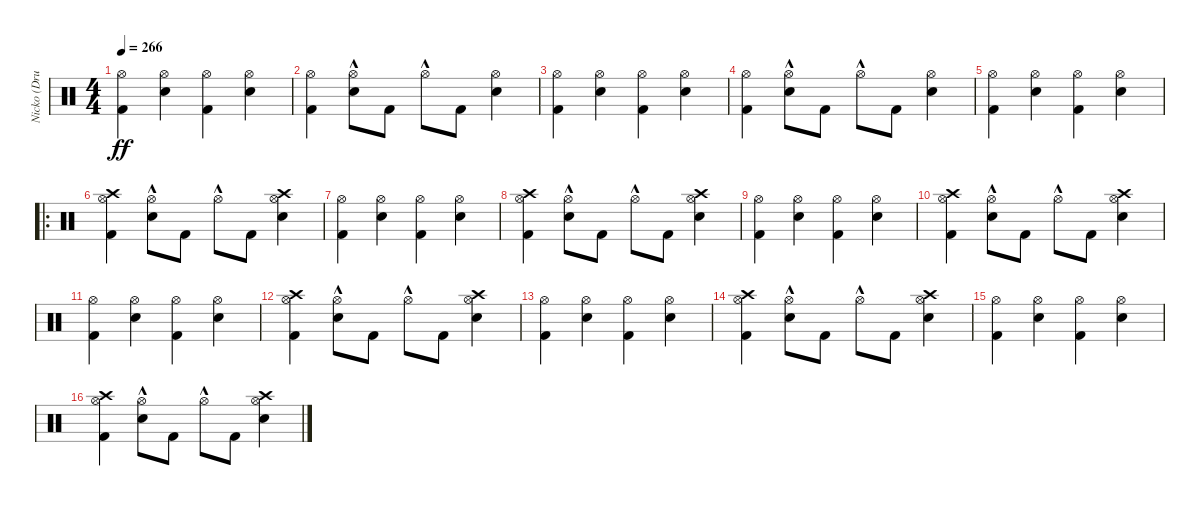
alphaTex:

\track ("Nicko (Drums)" "Nicko (Dru") {instrument percussion}
\staff {score}
\articulation defaults
\ts (4 4)
\tempo 266
\clef neutral
\ks c
("Kick (hit) 2" "Hi-Hat (open)").4{dy ff} ("Snare (hit) 2" "Hi-Hat (open)").4 ("Kick (hit) 2" "Hi-Hat (open)").4 ("Snare (hit) 2" "Hi-Hat (open)").4 |
("Kick (hit) 2" "Hi-Hat (open)").4 ("Snare (hit) 2" "Hi-Hat (open)"{hac}).8 "Kick (hit) 2".8 "Hi-Hat (open)"{hac}.8 "Kick (hit) 2".8 ("Snare (hit) 2" "Hi-Hat (open)").4 |
("Kick (hit) 2" "Hi-Hat (open)").4 ("Snare (hit) 2" "Hi-Hat (open)").4 ("Kick (hit) 2" "Hi-Hat (open)").4 ("Snare (hit) 2" "Hi-Hat (open)").4 |
("Kick (hit) 2" "Hi-Hat (open)").4 ("Snare (hit) 2" "Hi-Hat (open)"{hac}).8 "Kick (hit) 2".8 "Hi-Hat (open)"{hac}.8 "Kick (hit) 2".8 ("Snare (hit) 2" "Hi-Hat (open)").4 |
("Kick (hit) 2" "Hi-Hat (open)").4 ("Snare (hit) 2" "Hi-Hat (open)").4 ("Kick (hit) 2" "Hi-Hat (open)").4 ("Snare (hit) 2" "Hi-Hat (open)").4 |
\ro
("Kick (hit) 2" "Hi-Hat (open)" "Crash high (hit)").4 ("Snare (hit) 2" "Hi-Hat (open)"{hac}).8 "Kick (hit) 2".8 "Hi-Hat (open)"{hac}.8 "Kick (hit) 2".8 ("Snare (hit) 2" "Hi-Hat (open)" "Crash high (hit)").4 |
("Kick (hit) 2" "Hi-Hat (open)").4 ("Snare (hit) 2" "Hi-Hat (open)").4 ("Kick (hit) 2" "Hi-Hat (open)").4 ("Snare (hit) 2" "Hi-Hat (open)").4 |
("Kick (hit) 2" "Hi-Hat (open)" "Crash high (hit)").4 ("Snare (hit) 2" "Hi-Hat (open)"{hac}).8 "Kick (hit) 2".8 "Hi-Hat (open)"{hac}.8 "Kick (hit) 2".8 ("Snare (hit) 2" "Hi-Hat (open)" "Crash high (hit)").4 |
("Kick (hit) 2" "Hi-Hat (open)").4 ("Snare (hit) 2" "Hi-Hat (open)").4 ("Kick (hit) 2" "Hi-Hat (open)").4 ("Snare (hit) 2" "Hi-Hat (open)").4 |
("Kick (hit) 2" "Hi-Hat (open)" "Crash high (hit)").4 ("Snare (hit) 2" "Hi-Hat (open)"{hac}).8 "Kick (hit) 2".8 "Hi-Hat (open)"{hac}.8 "Kick (hit) 2".8 ("Snare (hit) 2" "Hi-Hat (open)" "Crash high (hit)").4 |
("Kick (hit) 2" "Hi-Hat (open)").4 ("Snare (hit) 2" "Hi-Hat (open)").4 ("Kick (hit) 2" "Hi-Hat (open)").4 ("Snare (hit) 2" "Hi-Hat (open)").4 |
("Kick (hit) 2" "Hi-Hat (open)" "Crash high (hit)").4 ("Snare (hit) 2" "Hi-Hat (open)"{hac}).8 "Kick (hit) 2".8 "Hi-Hat (open)"{hac}.8 "Kick (hit) 2".8 ("Snare (hit) 2" "Hi-Hat (open)" "Crash high (hit)").4 |
("Kick (hit) 2" "Hi-Hat (open)").4 ("Snare (hit) 2" "Hi-Hat (open)").4 ("Kick (hit) 2" "Hi-Hat (open)").4 ("Snare (hit) 2" "Hi-Hat (open)").4 |
("Kick (hit) 2" "Hi-Hat (open)" "Crash high (hit)").4 ("Snare (hit) 2" "Hi-Hat (open)"{hac}).8 "Kick (hit) 2".8 "Hi-Hat (open)"{hac}.8 "Kick (hit) 2".8 ("Snare (hit) 2" "Hi-Hat (open)" "Crash high (hit)").4 |
("Kick (hit) 2" "Hi-Hat (open)").4 ("Snare (hit) 2" "Hi-Hat (open)").4 ("Kick (hit) 2" "Hi-Hat (open)").4 ("Snare (hit) 2" "Hi-Hat (open)").4 |
("Kick (hit) 2" "Hi-Hat (open)" "Crash high (hit)").4 ("Snare (hit) 2" "Hi-Hat (open)"{hac}).8 "Kick (hit) 2".8 "Hi-Hat (open)"{hac}.8 "Kick (hit) 2".8 ("Snare (hit) 2" "Hi-Hat (open)" "Crash high (hit)").4
